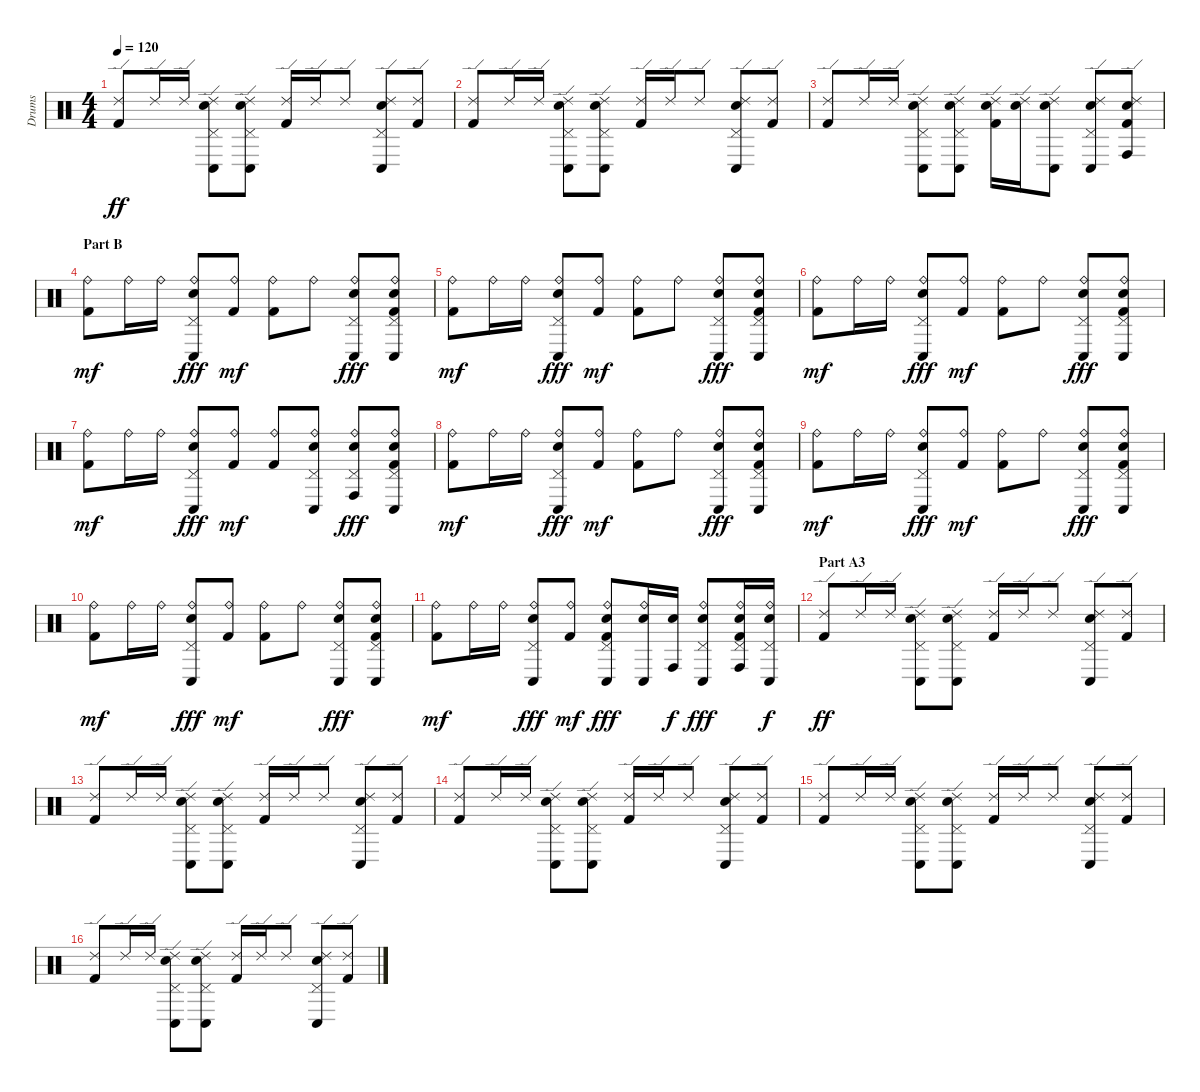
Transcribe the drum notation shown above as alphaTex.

\track ("Drums" "Drums") {instrument percussion}
\staff {score}
\articulation defaults
\ts (4 4)
\tempo 120
\clef neutral
\ks c
("Ride (edge) 2" "Kick (hit) 2").8{dy ff} "Ride (edge) 2".16 "Ride (edge) 2".16 ("Ride (edge) 2" "Pedal Hi-Hat (hit)" "Conga low (hit)" "Electric Snare (hit)").8 ("Ride (edge) 2" "Pedal Hi-Hat (hit)" "Conga low (hit)" "Electric Snare (hit)").8 ("Ride (edge) 2" "Kick (hit) 2").16 "Ride (edge) 2".16 "Ride (edge) 2".8 ("Ride (edge) 2" "Pedal Hi-Hat (hit)" "Conga low (hit)" "Electric Snare (hit)").8 ("Ride (edge) 2" "Kick (hit) 2").8 |
("Ride (edge) 2" "Kick (hit) 2").8 "Ride (edge) 2".16 "Ride (edge) 2".16 ("Ride (edge) 2" "Pedal Hi-Hat (hit)" "Conga low (hit)" "Electric Snare (hit)").8 ("Ride (edge) 2" "Pedal Hi-Hat (hit)" "Conga low (hit)" "Electric Snare (hit)").8 ("Ride (edge) 2" "Kick (hit) 2").16 "Ride (edge) 2".16 "Ride (edge) 2".8 ("Ride (edge) 2" "Pedal Hi-Hat (hit)" "Conga low (hit)" "Electric Snare (hit)").8 ("Ride (edge) 2" "Kick (hit) 2").8 |
("Ride (edge) 2" "Kick (hit) 2").8 "Ride (edge) 2".16 "Ride (edge) 2".16 ("Ride (edge) 2" "Pedal Hi-Hat (hit)" "Conga low (hit)" "Electric Snare (hit)").8 ("Ride (edge) 2" "Pedal Hi-Hat (hit)" "Conga low (hit)" "Electric Snare (hit)").8 ("Ride (edge) 2" "Electric Snare (hit)" "Kick (hit) 2").16 ("Ride (edge) 2" "Electric Snare (hit)").16 ("Ride (edge) 2" "Conga low (hit)" "Electric Snare (hit)").8 ("Ride (edge) 2" "Pedal Hi-Hat (hit)" "Conga low (hit)" "Electric Snare (hit)").8 ("Ride (edge) 2" "Conga high (hit)" "Electric Snare (hit)" "Kick (hit) 2").8 |
\section ("" "Part B")
("Ride (bell)" "Kick (hit) 2").8{dy mf} "Ride (bell)".16 "Ride (bell)".16 ("Ride (bell)" "Pedal Hi-Hat (hit)" "Conga low (hit)" "Electric Snare (hit)").8{dy fff} ("Ride (bell)" "Kick (hit) 2").8{dy mf} ("Ride (bell)" "Kick (hit) 2").8 "Ride (bell)".8 ("Ride (bell)" "Pedal Hi-Hat (hit)" "Conga low (hit)" "Electric Snare (hit)").8{dy fff} ("Ride (bell)" "Pedal Hi-Hat (hit)" "Conga low (hit)" "Electric Snare (hit)" "Kick (hit) 2").8 |
("Ride (bell)" "Kick (hit) 2").8{dy mf} "Ride (bell)".16 "Ride (bell)".16 ("Ride (bell)" "Pedal Hi-Hat (hit)" "Conga low (hit)" "Electric Snare (hit)").8{dy fff} ("Ride (bell)" "Kick (hit) 2").8{dy mf} ("Ride (bell)" "Kick (hit) 2").8 "Ride (bell)".8 ("Ride (bell)" "Pedal Hi-Hat (hit)" "Conga low (hit)" "Electric Snare (hit)").8{dy fff} ("Ride (bell)" "Pedal Hi-Hat (hit)" "Conga low (hit)" "Electric Snare (hit)" "Kick (hit) 2").8 |
("Ride (bell)" "Kick (hit) 2").8{dy mf} "Ride (bell)".16 "Ride (bell)".16 ("Ride (bell)" "Pedal Hi-Hat (hit)" "Conga low (hit)" "Electric Snare (hit)").8{dy fff} ("Ride (bell)" "Kick (hit) 2").8{dy mf} ("Ride (bell)" "Kick (hit) 2").8 "Ride (bell)".8 ("Ride (bell)" "Pedal Hi-Hat (hit)" "Conga low (hit)" "Electric Snare (hit)").8{dy fff} ("Ride (bell)" "Pedal Hi-Hat (hit)" "Conga low (hit)" "Electric Snare (hit)" "Kick (hit) 2").8 |
("Ride (bell)" "Kick (hit) 2").8{dy mf} "Ride (bell)".16 "Ride (bell)".16 ("Ride (bell)" "Pedal Hi-Hat (hit)" "Conga low (hit)" "Electric Snare (hit)").8{dy fff} ("Ride (bell)" "Kick (hit) 2").8{dy mf} ("Ride (bell)" "Kick (hit) 2").8 ("Ride (bell)" "Pedal Hi-Hat (hit)" "Conga low (hit)" "Electric Snare (hit)").8 ("Ride (bell)" "Pedal Hi-Hat (hit)" "Conga high (hit)" "Electric Snare (hit)").8{dy fff} ("Ride (bell)" "Pedal Hi-Hat (hit)" "Conga low (hit)" "Electric Snare (hit)" "Kick (hit) 2").8 |
("Ride (bell)" "Kick (hit) 2").8{dy mf} "Ride (bell)".16 "Ride (bell)".16 ("Ride (bell)" "Pedal Hi-Hat (hit)" "Conga low (hit)" "Electric Snare (hit)").8{dy fff} ("Ride (bell)" "Kick (hit) 2").8{dy mf} ("Ride (bell)" "Kick (hit) 2").8 "Ride (bell)".8 ("Ride (bell)" "Pedal Hi-Hat (hit)" "Conga low (hit)" "Electric Snare (hit)").8{dy fff} ("Ride (bell)" "Pedal Hi-Hat (hit)" "Conga low (hit)" "Electric Snare (hit)" "Kick (hit) 2").8 |
("Ride (bell)" "Kick (hit) 2").8{dy mf} "Ride (bell)".16 "Ride (bell)".16 ("Ride (bell)" "Pedal Hi-Hat (hit)" "Conga low (hit)" "Electric Snare (hit)").8{dy fff} ("Ride (bell)" "Kick (hit) 2").8{dy mf} ("Ride (bell)" "Kick (hit) 2").8 "Ride (bell)".8 ("Ride (bell)" "Pedal Hi-Hat (hit)" "Conga low (hit)" "Electric Snare (hit)").8{dy fff} ("Ride (bell)" "Pedal Hi-Hat (hit)" "Conga low (hit)" "Electric Snare (hit)" "Kick (hit) 2").8 |
("Ride (bell)" "Kick (hit) 2").8{dy mf} "Ride (bell)".16 "Ride (bell)".16 ("Ride (bell)" "Pedal Hi-Hat (hit)" "Conga low (hit)" "Electric Snare (hit)").8{dy fff} ("Ride (bell)" "Kick (hit) 2").8{dy mf} ("Ride (bell)" "Kick (hit) 2").8 "Ride (bell)".8 ("Ride (bell)" "Pedal Hi-Hat (hit)" "Conga low (hit)" "Electric Snare (hit)").8{dy fff} ("Ride (bell)" "Pedal Hi-Hat (hit)" "Conga low (hit)" "Electric Snare (hit)" "Kick (hit) 2").8 |
("Ride (bell)" "Kick (hit) 2").8{dy mf} "Ride (bell)".16 "Ride (bell)".16 ("Ride (bell)" "Pedal Hi-Hat (hit)" "Conga low (hit)" "Electric Snare (hit)").8{dy fff} ("Ride (bell)" "Kick (hit) 2").8{dy mf} ("Ride (bell)" "Pedal Hi-Hat (hit)" "Conga low (hit)" "Electric Snare (hit)" "Kick (hit) 2").8{dy fff} ("Ride (bell)" "Conga low (hit)" "Electric Snare (hit)").16 ("Conga high (hit)" "Electric Snare (hit)").16{dy f} ("Ride (bell)" "Pedal Hi-Hat (hit)" "Conga low (hit)" "Electric Snare (hit)").8{dy fff} ("Ride (bell)" "Pedal Hi-Hat (hit)" "Conga high (hit)" "Electric Snare (hit)" "Kick (hit) 2").16 ("Ride (bell)" "Pedal Hi-Hat (hit)" "Conga low (hit)" "Electric Snare (hit)").16{dy f} |
\section ("" "Part A3")
("Ride (edge) 2" "Kick (hit) 2").8{dy ff} "Ride (edge) 2".16 "Ride (edge) 2".16 ("Ride (edge) 2" "Pedal Hi-Hat (hit)" "Conga low (hit)" "Electric Snare (hit)").8 ("Ride (edge) 2" "Pedal Hi-Hat (hit)" "Conga low (hit)" "Electric Snare (hit)").8 ("Ride (edge) 2" "Kick (hit) 2").16 "Ride (edge) 2".16 "Ride (edge) 2".8 ("Ride (edge) 2" "Pedal Hi-Hat (hit)" "Conga low (hit)" "Electric Snare (hit)").8 ("Ride (edge) 2" "Kick (hit) 2").8 |
("Ride (edge) 2" "Kick (hit) 2").8 "Ride (edge) 2".16 "Ride (edge) 2".16 ("Ride (edge) 2" "Pedal Hi-Hat (hit)" "Conga low (hit)" "Electric Snare (hit)").8 ("Ride (edge) 2" "Pedal Hi-Hat (hit)" "Conga low (hit)" "Electric Snare (hit)").8 ("Ride (edge) 2" "Kick (hit) 2").16 "Ride (edge) 2".16 "Ride (edge) 2".8 ("Ride (edge) 2" "Pedal Hi-Hat (hit)" "Conga low (hit)" "Electric Snare (hit)").8 ("Ride (edge) 2" "Kick (hit) 2").8 |
("Ride (edge) 2" "Kick (hit) 2").8 "Ride (edge) 2".16 "Ride (edge) 2".16 ("Ride (edge) 2" "Pedal Hi-Hat (hit)" "Conga low (hit)" "Electric Snare (hit)").8 ("Ride (edge) 2" "Pedal Hi-Hat (hit)" "Conga low (hit)" "Electric Snare (hit)").8 ("Ride (edge) 2" "Kick (hit) 2").16 "Ride (edge) 2".16 "Ride (edge) 2".8 ("Ride (edge) 2" "Pedal Hi-Hat (hit)" "Conga low (hit)" "Electric Snare (hit)").8 ("Ride (edge) 2" "Kick (hit) 2").8 |
("Ride (edge) 2" "Kick (hit) 2").8 "Ride (edge) 2".16 "Ride (edge) 2".16 ("Ride (edge) 2" "Pedal Hi-Hat (hit)" "Conga low (hit)" "Electric Snare (hit)").8 ("Ride (edge) 2" "Pedal Hi-Hat (hit)" "Conga low (hit)" "Electric Snare (hit)").8 ("Ride (edge) 2" "Kick (hit) 2").16 "Ride (edge) 2".16 "Ride (edge) 2".8 ("Ride (edge) 2" "Pedal Hi-Hat (hit)" "Conga low (hit)" "Electric Snare (hit)").8 ("Ride (edge) 2" "Kick (hit) 2").8 |
("Ride (edge) 2" "Kick (hit) 2").8 "Ride (edge) 2".16 "Ride (edge) 2".16 ("Ride (edge) 2" "Pedal Hi-Hat (hit)" "Conga low (hit)" "Electric Snare (hit)").8 ("Ride (edge) 2" "Pedal Hi-Hat (hit)" "Conga low (hit)" "Electric Snare (hit)").8 ("Ride (edge) 2" "Kick (hit) 2").16 "Ride (edge) 2".16 "Ride (edge) 2".8 ("Ride (edge) 2" "Pedal Hi-Hat (hit)" "Conga low (hit)" "Electric Snare (hit)").8 ("Ride (edge) 2" "Kick (hit) 2").8
